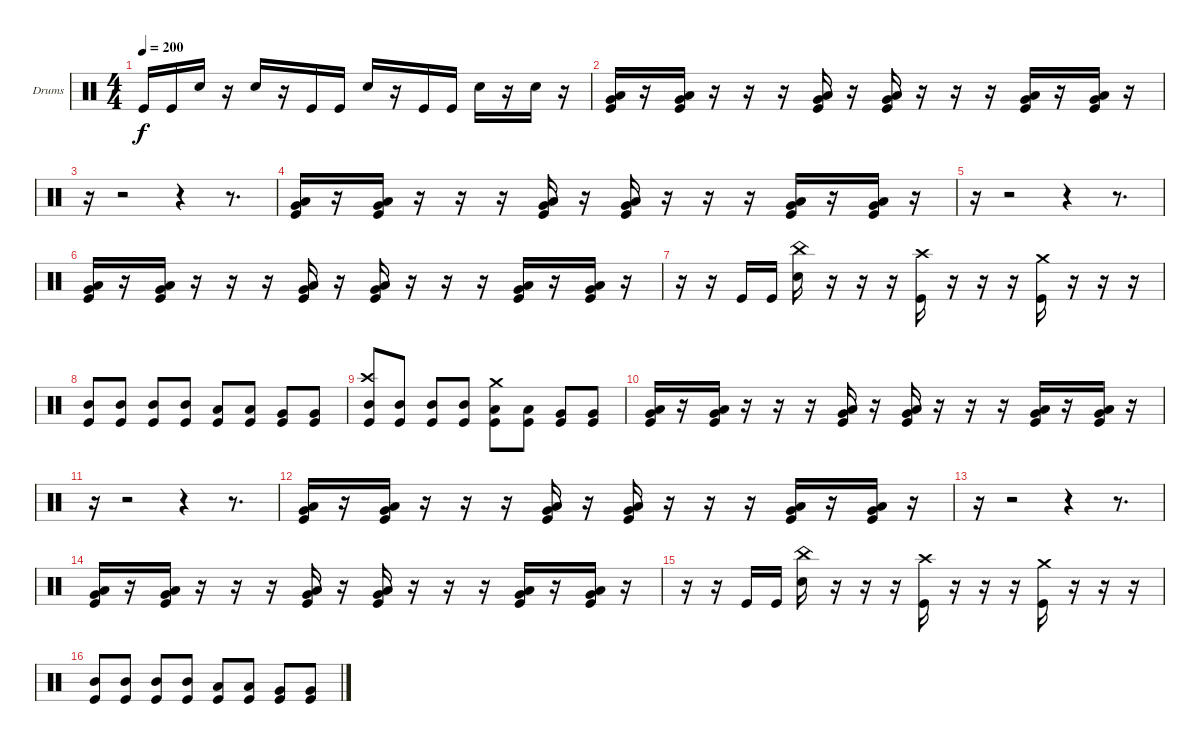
\defaultSystemsLayout 4
\bracketExtendMode groupsimilarinstruments
\firstSystemTrackNameOrientation horizontal
\otherSystemsTrackNameOrientation horizontal
\track ("Drumkit" "Drums") {instrument percussion}
\staff {score}
\articulation defaults
\ts (4 4)
\tempo 200
\clef neutral
\ks c "Kick (hit)".16{dy f} "Kick (hit)".16 "Snare (hit) 2".16
r.16 "Snare (hit) 2".16 r.16 "Kick (hit)".16 "Kick (hit)".16 "Snare (hit) 2".16 r.16 "Kick (hit)".16 "Kick (hit)".16 "Snare (hit) 2".16 r.16 "Snare (hit) 2".16 r.16 |
("Kick (hit)" "Very Low Tom (hit)" "Low Tom (hit)").16 r.16 ("Kick (hit)" "Very Low Tom (hit)" "Low Tom (hit)").16 r.16 r.16 r.16 ("Kick (hit)" "Very Low Tom (hit)" "Low Tom (hit)").16 r.16 ("Kick (hit)" "Very Low Tom (hit)" "Low Tom (hit)").16 r.16 r.16 r.16 ("Kick (hit)" "Very Low Tom (hit)" "Low Tom (hit)").16 r.16 ("Kick (hit)" "Very Low Tom (hit)" "Low Tom (hit)").16 r.16 |
r.16 r.2 r.4 r.8{d} |
("Kick (hit)" "Very Low Tom (hit)" "Low Tom (hit)").16 r.16 ("Kick (hit)" "Very Low Tom (hit)" "Low Tom (hit)").16 r.16 r.16 r.16 ("Kick (hit)" "Very Low Tom (hit)" "Low Tom (hit)").16 r.16 ("Kick (hit)" "Very Low Tom (hit)" "Low Tom (hit)").16 r.16 r.16 r.16 ("Kick (hit)" "Very Low Tom (hit)" "Low Tom (hit)").16 r.16 ("Kick (hit)" "Very Low Tom (hit)" "Low Tom (hit)").16 r.16 |
r.16 r.2 r.4 r.8{d} |
("Kick (hit)" "Very Low Tom (hit)" "Low Tom (hit)").16 r.16 ("Kick (hit)" "Very Low Tom (hit)" "Low Tom (hit)").16 r.16 r.16 r.16 ("Kick (hit)" "Very Low Tom (hit)" "Low Tom (hit)").16 r.16 ("Kick (hit)" "Very Low Tom (hit)" "Low Tom (hit)").16 r.16 r.16 r.16 ("Kick (hit)" "Very Low Tom (hit)" "Low Tom (hit)").16 r.16 ("Kick (hit)" "Very Low Tom (hit)" "Low Tom (hit)").16 r.16 |
r.16 r.16 "Kick (hit)".16 "Kick (hit)".16 ("Snare (hit) 2" "China (hit)").16 r.16 r.16 r.16 ("Kick (hit)" "Crash high (hit)").16 r.16 r.16 r.16 ("Kick (hit)" "Crash medium (hit)").16 r.16 r.16 r.16 |
("Kick (hit)" "Mid Tom (hit)").8 ("Kick (hit)" "Mid Tom (hit)").8 ("Kick (hit)" "Mid Tom (hit)").8 ("Kick (hit)" "Mid Tom (hit)").8 ("Kick (hit)" "Low Tom (hit)").8 ("Kick (hit)" "Low Tom (hit)").8 ("Kick (hit)" "Very Low Tom (hit)").8 ("Kick (hit)" "Very Low Tom (hit)").8 |
("Kick (hit)" "Mid Tom (hit)" "Crash high (hit)").8 ("Kick (hit)" "Mid Tom (hit)").8 ("Kick (hit)" "Mid Tom (hit)").8 ("Kick (hit)" "Mid Tom (hit)").8 ("Kick (hit)" "Low Tom (hit)" "Crash medium (hit)").8 ("Kick (hit)" "Low Tom (hit)").8 ("Kick (hit)" "Very Low Tom (hit)").8 ("Kick (hit)" "Very Low Tom (hit)").8 |
("Kick (hit)" "Very Low Tom (hit)" "Low Tom (hit)").16 r.16 ("Kick (hit)" "Very Low Tom (hit)" "Low Tom (hit)").16 r.16 r.16 r.16 ("Kick (hit)" "Very Low Tom (hit)" "Low Tom (hit)").16 r.16 ("Kick (hit)" "Very Low Tom (hit)" "Low Tom (hit)").16 r.16 r.16 r.16 ("Kick (hit)" "Very Low Tom (hit)" "Low Tom (hit)").16 r.16 ("Kick (hit)" "Very Low Tom (hit)" "Low Tom (hit)").16 r.16 |
r.16 r.2 r.4 r.8{d} |
("Kick (hit)" "Very Low Tom (hit)" "Low Tom (hit)").16 r.16 ("Kick (hit)" "Very Low Tom (hit)" "Low Tom (hit)").16 r.16 r.16 r.16 ("Kick (hit)" "Very Low Tom (hit)" "Low Tom (hit)").16 r.16 ("Kick (hit)" "Very Low Tom (hit)" "Low Tom (hit)").16 r.16 r.16 r.16 ("Kick (hit)" "Very Low Tom (hit)" "Low Tom (hit)").16 r.16 ("Kick (hit)" "Very Low Tom (hit)" "Low Tom (hit)").16 r.16 |
r.16 r.2 r.4 r.8{d} |
("Kick (hit)" "Very Low Tom (hit)" "Low Tom (hit)").16 r.16 ("Kick (hit)" "Very Low Tom (hit)" "Low Tom (hit)").16 r.16 r.16 r.16 ("Kick (hit)" "Very Low Tom (hit)" "Low Tom (hit)").16 r.16 ("Kick (hit)" "Very Low Tom (hit)" "Low Tom (hit)").16 r.16 r.16 r.16 ("Kick (hit)" "Very Low Tom (hit)" "Low Tom (hit)").16 r.16 ("Kick (hit)" "Very Low Tom (hit)" "Low Tom (hit)").16 r.16 |
r.16 r.16 "Kick (hit)".16 "Kick (hit)".16 ("Snare (hit) 2" "China (hit)").16 r.16 r.16 r.16 ("Kick (hit)" "Crash high (hit)").16 r.16 r.16 r.16 ("Kick (hit)" "Crash medium (hit)").16 r.16 r.16 r.16 |
("Kick (hit)" "Mid Tom (hit)").8 ("Kick (hit)" "Mid Tom (hit)").8 ("Kick (hit)" "Mid Tom (hit)").8 ("Kick (hit)" "Mid Tom (hit)").8 ("Kick (hit)" "Low Tom (hit)").8 ("Kick (hit)" "Low Tom (hit)").8 ("Kick (hit)" "Very Low Tom (hit)").8 ("Kick (hit)" "Very Low Tom (hit)").8
